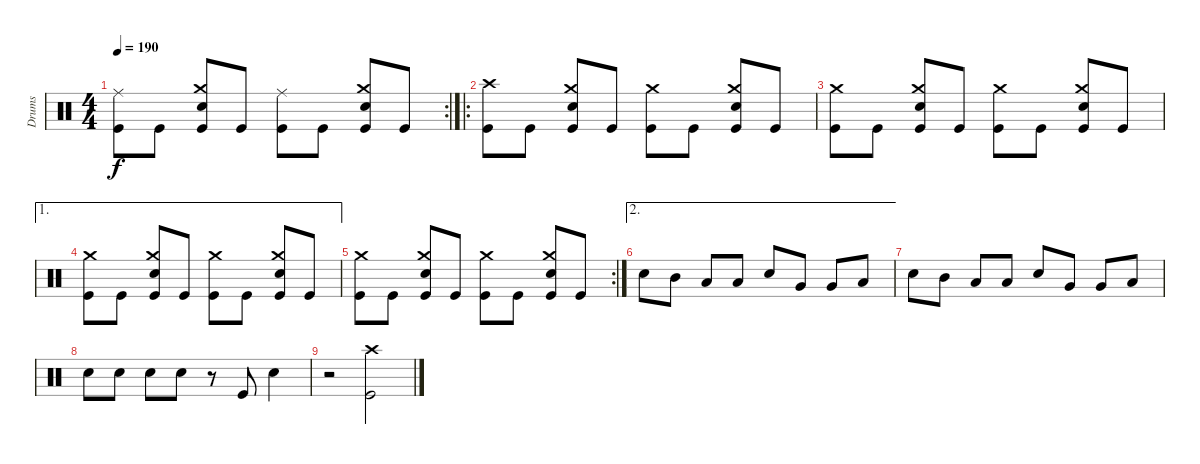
\track ("Drums" "Drums") {instrument percussion}
\staff {score}
\articulation defaults
\rc 2
\ts (4 4)
\tempo 190
\clef neutral
\ks c
("Ride (middle)" "Kick (hit)").8{dy f} "Kick (hit)".8 ("Crash medium (hit)" "Electric Snare (hit)" "Kick (hit)").8 "Kick (hit)".8 ("Ride (middle)" "Kick (hit)").8 "Kick (hit)".8 ("Crash medium (hit)" "Electric Snare (hit)" "Kick (hit)").8 "Kick (hit)".8 |
\ro
("Crash high (hit)" "Kick (hit)").8 "Kick (hit)".8 ("Crash medium (hit)" "Electric Snare (hit)" "Kick (hit)").8 "Kick (hit)".8 ("Crash medium (hit)" "Kick (hit)").8 "Kick (hit)".8 ("Crash medium (hit)" "Electric Snare (hit)" "Kick (hit)").8 "Kick (hit)".8 |
("Crash medium (hit)" "Kick (hit)").8 "Kick (hit)".8 ("Crash medium (hit)" "Electric Snare (hit)" "Kick (hit)").8 "Kick (hit)".8 ("Crash medium (hit)" "Kick (hit)").8 "Kick (hit)".8 ("Crash medium (hit)" "Electric Snare (hit)" "Kick (hit)").8 "Kick (hit)".8 |
\ae 1
("Crash medium (hit)" "Kick (hit)").8 "Kick (hit)".8 ("Crash medium (hit)" "Electric Snare (hit)" "Kick (hit)").8 "Kick (hit)".8 ("Crash medium (hit)" "Kick (hit)").8 "Kick (hit)".8 ("Crash medium (hit)" "Electric Snare (hit)" "Kick (hit)").8 "Kick (hit)".8 |
\rc 2
("Crash medium (hit)" "Kick (hit)").8 "Kick (hit)".8 ("Crash medium (hit)" "Electric Snare (hit)" "Kick (hit)").8 "Kick (hit)".8 ("Crash medium (hit)" "Kick (hit)").8 "Kick (hit)".8 ("Crash medium (hit)" "Electric Snare (hit)" "Kick (hit)").8 "Kick (hit)".8 |
\ae 2 "Electric Snare (hit)".8 "Mid Tom (hit)".8 "Low Tom (hit)".8 "Low Tom (hit)".8 "Electric Snare (hit)".8 "Very Low Tom (hit)".8 "Very Low Tom (hit)".8 "Low Floor Tom (hit)".8
|
"Electric Snare (hit)".8 "Mid Tom (hit)".8 "Low Tom (hit)".8 "Low Tom (hit)".8 "Electric Snare (hit)".8 "Very Low Tom (hit)".8 "Very Low Tom (hit)".8 "Low Floor Tom (hit)".8 |
"Electric Snare (hit)".8 "Electric Snare (hit)".8 "Electric Snare (hit)".8 "Electric Snare (hit)".8 r.8 "Kick (hit)".8 "Electric Snare (hit)".4 |
r.2 ("Crash high (hit)" "Kick (hit)").2
